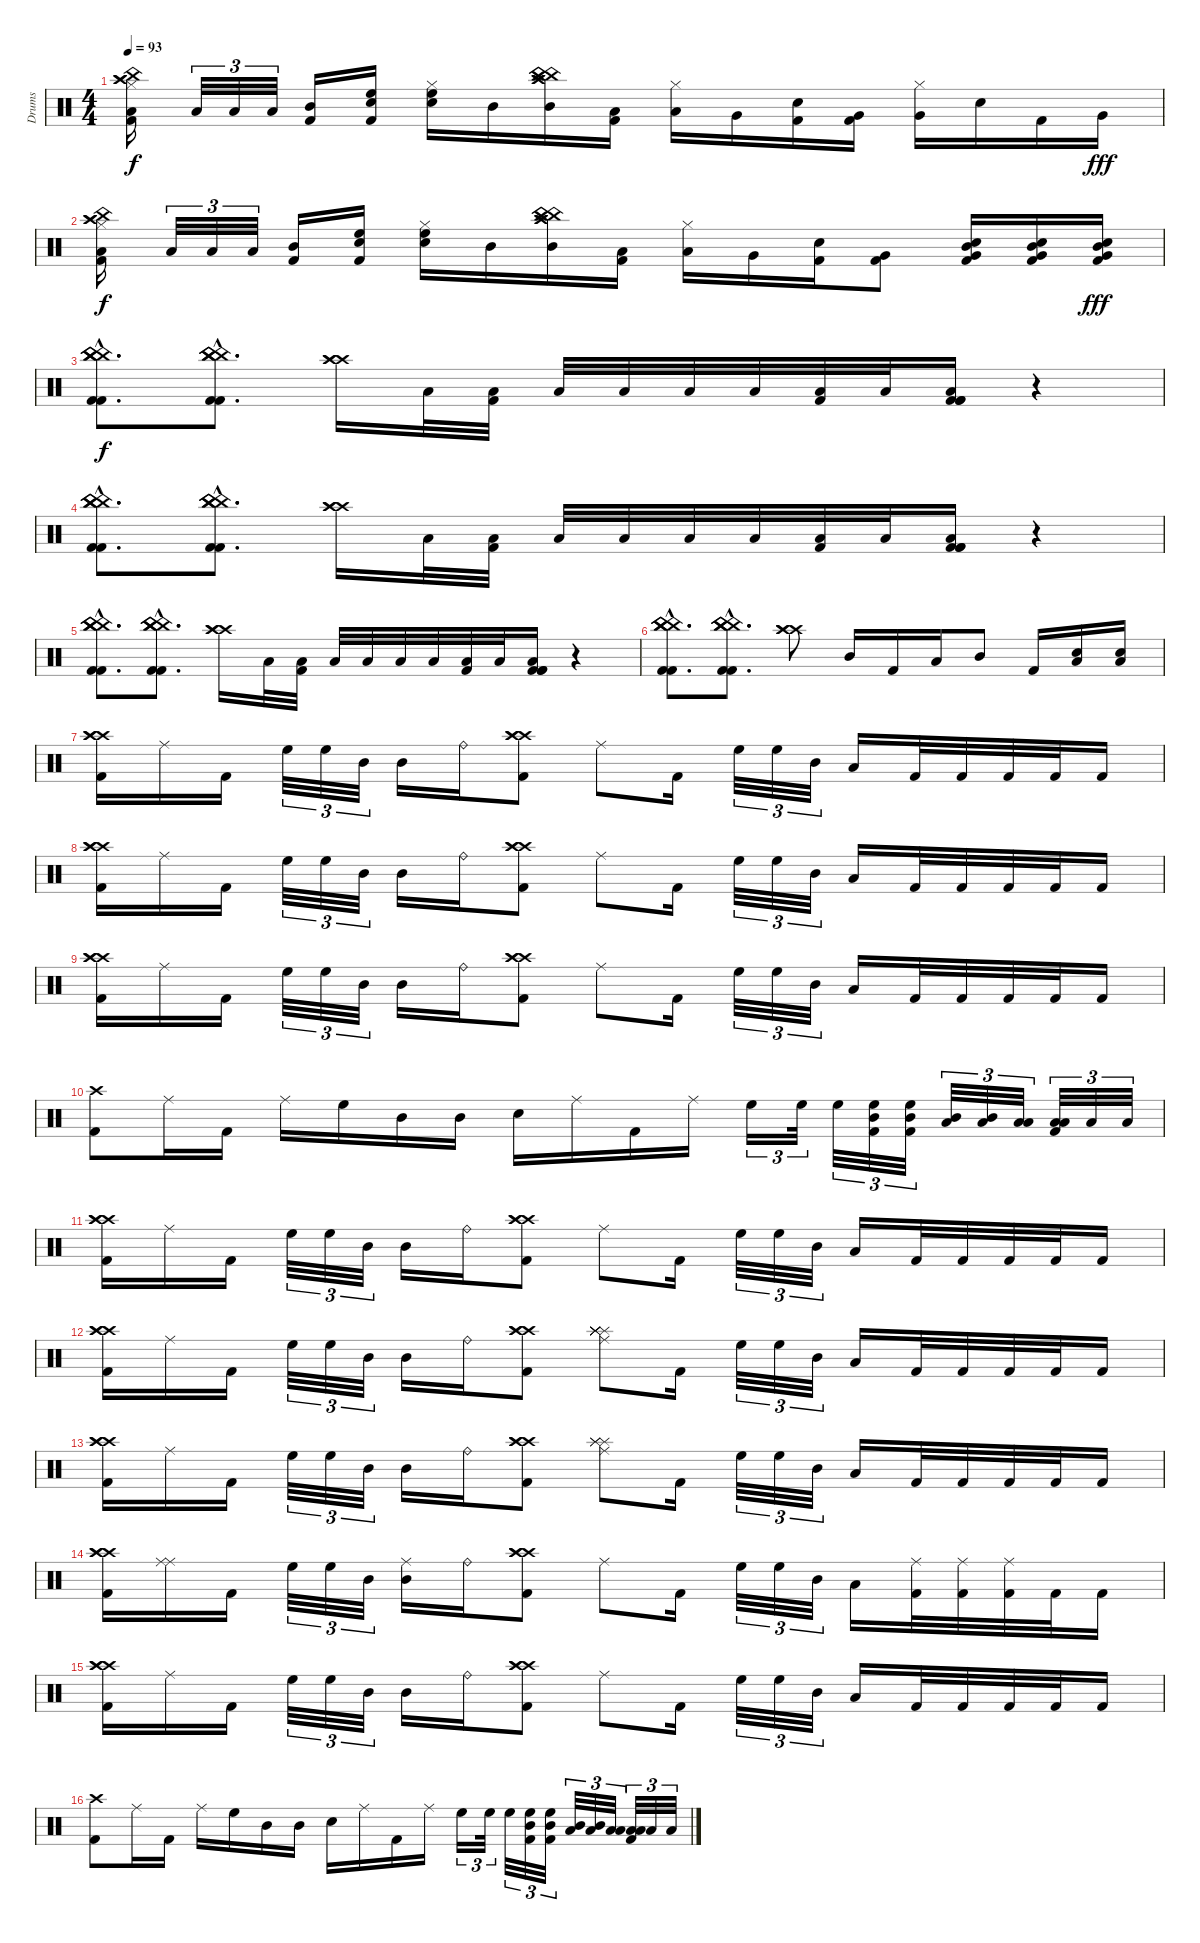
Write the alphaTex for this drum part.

\track ("Drums" "Drums") {instrument percussion}
\staff {score}
\articulation defaults
\ts (4 4)
\tempo 93
\clef neutral
\ks c
("Hi-Hat (closed)" "China (hit)" "Low Floor Tom (hit)" "Crash high (hit)" "Crash high (hit)" "Kick (hit) 2").16{dy f} "Low Floor Tom (hit)".32{tu (3 2)} "Low Floor Tom (hit)".32{tu (3 2)} "Low Floor Tom (hit)".32{tu (3 2)} ("Mid Tom (hit)" "Kick (hit) 2").16 ("High Floor Tom (hit)" "Snare (hit) 2" "Kick (hit) 2").16 ("High Floor Tom (hit)" "Hi-Hat (closed)" "Snare (hit) 2").16 "Mid Tom (hit)".16 ("China (hit)" "Mid Tom (hit)" "China (hit)" "China (hit)" "Crash high (hit)" "Crash high (hit)").16 ("Low Tom (hit)" "Kick (hit) 2").16 ("Hi-Hat (closed)" "Low Floor Tom (hit)").16 "Very Low Tom (hit)".16 ("Snare (hit) 2" "Kick (hit) 2").16 ("Very Low Tom (hit)" "Kick (hit) 2").16 ("Hi-Hat (closed)" "Very Low Tom (hit)").16 "Snare (hit) 2".16 "Kick (hit) 2".16 "Very Low Tom (hit)".16{dy fff} |
("Hi-Hat (closed)" "China (hit)" "Low Floor Tom (hit)" "Crash high (hit)" "Crash high (hit)" "Kick (hit) 2").16{dy f} "Low Floor Tom (hit)".32{tu (3 2)} "Low Floor Tom (hit)".32{tu (3 2)} "Low Floor Tom (hit)".32{tu (3 2)} ("Mid Tom (hit)" "Kick (hit) 2").16 ("High Floor Tom (hit)" "Snare (hit) 2" "Kick (hit) 2").16 ("High Floor Tom (hit)" "Hi-Hat (closed)" "Snare (hit) 2").16 "Mid Tom (hit)".16 ("China (hit)" "Mid Tom (hit)" "China (hit)" "China (hit)" "Crash high (hit)" "Crash high (hit)").16 ("Low Tom (hit)" "Kick (hit) 2").16 ("Hi-Hat (closed)" "Low Floor Tom (hit)").16 "Very Low Tom (hit)".16 ("Snare (hit) 2" "Kick (hit) 2").16 ("Very Low Tom (hit)" "Kick (hit) 2").8 ("Mid Tom (hit)" "Very Low Tom (hit)" "Snare (hit) 2" "Kick (hit) 2").16 ("Mid Tom (hit)" "Very Low Tom (hit)" "Snare (hit) 2" "Kick (hit) 2").16 ("Mid Tom (hit)" "Very Low Tom (hit)" "Snare (hit) 2" "Kick (hit) 2").16{dy fff} |
("China (hit)"{hac} "China (hit)"{hac} "China (hit)"{hac} "China (hit)"{hac} "Kick (hit) 2"{hac} "Kick (hit) 2"{hac}).8{d dy f} ("China (hit)"{hac} "China (hit)"{hac} "China (hit)"{hac} "China (hit)"{hac} "Kick (hit) 2"{hac} "Kick (hit) 2"{hac}).8{d} ("Crash high (hit)" "Crash high (hit)" "Crash high (hit)").16 "Low Floor Tom (hit)".32{volume 0} ("Low Floor Tom (hit)" "Kick (hit) 2").32{volume 16} "Low Floor Tom (hit)".32 "Low Floor Tom (hit)".32 "Low Floor Tom (hit)".32 "Low Floor Tom (hit)".32 ("Low Floor Tom (hit)" "Kick (hit) 2").32 "Low Floor Tom (hit)".32 ("Kick (hit) 2" "Kick (hit) 2" "Low Floor Tom (hit)" "Kick (hit) 2").16 r.4 |
("China (hit)"{hac} "China (hit)"{hac} "China (hit)"{hac} "China (hit)"{hac} "Kick (hit) 2"{hac} "Kick (hit) 2"{hac}).8{d} ("China (hit)"{hac} "China (hit)"{hac} "China (hit)"{hac} "China (hit)"{hac} "Kick (hit) 2"{hac} "Kick (hit) 2"{hac}).8{d} ("Crash high (hit)" "Crash high (hit)" "Crash high (hit)").16 "Low Floor Tom (hit)".32{volume 0} ("Low Floor Tom (hit)" "Kick (hit) 2").32{volume 16} "Low Floor Tom (hit)".32 "Low Floor Tom (hit)".32 "Low Floor Tom (hit)".32 "Low Floor Tom (hit)".32 ("Low Floor Tom (hit)" "Kick (hit) 2").32 "Low Floor Tom (hit)".32 ("Kick (hit) 2" "Kick (hit) 2" "Low Floor Tom (hit)" "Kick (hit) 2").16 r.4 |
("China (hit)"{hac} "China (hit)"{hac} "China (hit)"{hac} "China (hit)"{hac} "Kick (hit) 2"{hac} "Kick (hit) 2"{hac}).8{d} ("China (hit)"{hac} "China (hit)"{hac} "China (hit)"{hac} "China (hit)"{hac} "Kick (hit) 2"{hac} "Kick (hit) 2"{hac}).8{d} ("Crash high (hit)" "Crash high (hit)" "Crash high (hit)").16 "Low Floor Tom (hit)".32{volume 0} ("Low Floor Tom (hit)" "Kick (hit) 2").32{volume 16} "Low Floor Tom (hit)".32 "Low Floor Tom (hit)".32 "Low Floor Tom (hit)".32 "Low Floor Tom (hit)".32 ("Low Floor Tom (hit)" "Kick (hit) 2").32 "Low Floor Tom (hit)".32 ("Kick (hit) 2" "Kick (hit) 2" "Low Floor Tom (hit)" "Kick (hit) 2").16 r.4 |
("China (hit)"{hac} "China (hit)"{hac} "China (hit)"{hac} "China (hit)"{hac} "Kick (hit) 2"{hac} "Kick (hit) 2"{hac}).8{d} ("China (hit)"{hac} "China (hit)"{hac} "China (hit)"{hac} "China (hit)"{hac} "Kick (hit) 2"{hac} "Kick (hit) 2"{hac}).8{d} ("Crash high (hit)" "Crash high (hit)" "Crash high (hit)").8 "Mid Tom (hit)".16 "Kick (hit) 2".16 "Low Tom (hit)".16 "Mid Tom (hit)".8 "Kick (hit) 2".16 ("Low Floor Tom (hit)" "Snare (hit) 2").16 ("Low Floor Tom (hit)" "Snare (hit) 2").16 |
("Crash high (hit)" "Crash high (hit)" "Crash high (hit)" "Kick (hit) 2").16 "Ride (middle)".16 "Kick (hit) 2".16 "High Floor Tom (hit)".32{tu (3 2)} "High Floor Tom (hit)".32{tu (3 2)} "Mid Tom (hit)".32{tu (3 2)} "Mid Tom (hit)".16 "Ride (bell)".16 ("Crash high (hit)" "Kick (hit) 2" "Crash high (hit)" "Crash high (hit)").8 "Ride (middle)".8 "Kick (hit) 2".16 "High Floor Tom (hit)".32{tu (3 2)} "High Floor Tom (hit)".32{tu (3 2)} "Mid Tom (hit)".32{tu (3 2)} "Low Tom (hit)".16 "Kick (hit) 2".32 "Kick (hit) 2".32 "Kick (hit) 2".32 "Kick (hit) 2".32 "Kick (hit) 2".16 |
("Crash high (hit)" "Crash high (hit)" "Crash high (hit)" "Kick (hit) 2").16 "Ride (middle)".16 "Kick (hit) 2".16 "High Floor Tom (hit)".32{tu (3 2)} "High Floor Tom (hit)".32{tu (3 2)} "Mid Tom (hit)".32{tu (3 2)} "Mid Tom (hit)".16 "Ride (bell)".16 ("Crash high (hit)" "Kick (hit) 2" "Crash high (hit)" "Crash high (hit)").8 "Ride (middle)".8 "Kick (hit) 2".16 "High Floor Tom (hit)".32{tu (3 2)} "High Floor Tom (hit)".32{tu (3 2)} "Mid Tom (hit)".32{tu (3 2)} "Low Tom (hit)".16 "Kick (hit) 2".32 "Kick (hit) 2".32 "Kick (hit) 2".32 "Kick (hit) 2".32 "Kick (hit) 2".16 |
("Crash high (hit)" "Crash high (hit)" "Crash high (hit)" "Kick (hit) 2").16 "Ride (middle)".16 "Kick (hit) 2".16 "High Floor Tom (hit)".32{tu (3 2)} "High Floor Tom (hit)".32{tu (3 2)} "Mid Tom (hit)".32{tu (3 2)} "Mid Tom (hit)".16 "Ride (bell)".16 ("Crash high (hit)" "Kick (hit) 2" "Crash high (hit)" "Crash high (hit)").8 "Ride (middle)".8 "Kick (hit) 2".16 "High Floor Tom (hit)".32{tu (3 2)} "High Floor Tom (hit)".32{tu (3 2)} "Mid Tom (hit)".32{tu (3 2)} "Low Tom (hit)".16 "Kick (hit) 2".32 "Kick (hit) 2".32 "Kick (hit) 2".32 "Kick (hit) 2".32 "Kick (hit) 2".16 |
("Crash high (hit)" "Kick (hit) 2").8 "Ride (middle)".16 "Kick (hit) 2".16 "Ride (middle)".16 "High Floor Tom (hit)".16 "Mid Tom (hit)".16 "Mid Tom (hit)".16 "Snare (hit) 2".16 "Ride (middle)".16 "Kick (hit) 2".16 "Ride (middle)".16 "High Floor Tom (hit)".16{tu (3 2)} "High Floor Tom (hit)".32{tu (3 2)} "High Floor Tom (hit)".32{tu (3 2)} ("Kick (hit) 2" "High Floor Tom (hit)" "Mid Tom (hit)").32{tu (3 2)} ("Kick (hit) 2" "High Floor Tom (hit)" "Mid Tom (hit)").32{tu (3 2)} ("Mid Tom (hit)" "Low Tom (hit)").32{tu (3 2)} ("Mid Tom (hit)" "Low Tom (hit)").32{tu (3 2)} ("Low Tom (hit)" "Low Floor Tom (hit)").32{tu (3 2)} ("Kick (hit) 2" "Low Tom (hit)" "Low Floor Tom (hit)").32{tu (3 2)} "Low Floor Tom (hit)".32{tu (3 2)} "Low Floor Tom (hit)".32{tu (3 2)} |
("Crash high (hit)" "Crash high (hit)" "Crash high (hit)" "Kick (hit) 2").16 "Ride (middle)".16 "Kick (hit) 2".16 "High Floor Tom (hit)".32{tu (3 2)} "High Floor Tom (hit)".32{tu (3 2)} "Mid Tom (hit)".32{tu (3 2)} "Mid Tom (hit)".16 "Ride (bell)".16 ("Crash high (hit)" "Kick (hit) 2" "Crash high (hit)" "Crash high (hit)").8 "Ride (middle)".8 "Kick (hit) 2".16 "High Floor Tom (hit)".32{tu (3 2)} "High Floor Tom (hit)".32{tu (3 2)} "Mid Tom (hit)".32{tu (3 2)} "Low Tom (hit)".16 "Kick (hit) 2".32 "Kick (hit) 2".32 "Kick (hit) 2".32 "Kick (hit) 2".32 "Kick (hit) 2".16 |
("Crash high (hit)" "Crash high (hit)" "Crash high (hit)" "Kick (hit) 2").16 "Ride (middle)".16 "Kick (hit) 2".16 "High Floor Tom (hit)".32{tu (3 2)} "High Floor Tom (hit)".32{tu (3 2)} "Mid Tom (hit)".32{tu (3 2)} "Mid Tom (hit)".16 "Ride (bell)".16 ("Crash high (hit)" "Kick (hit) 2" "Crash high (hit)" "Crash high (hit)").8 ("Ride (middle)" "Splash (hit)" "Splash (hit)" "Splash (hit)" "Splash (hit)" "Splash (hit)").8 "Kick (hit) 2".16 "High Floor Tom (hit)".32{tu (3 2)} "High Floor Tom (hit)".32{tu (3 2)} "Mid Tom (hit)".32{tu (3 2)} "Low Tom (hit)".16 "Kick (hit) 2".32 "Kick (hit) 2".32 "Kick (hit) 2".32 "Kick (hit) 2".32 "Kick (hit) 2".16 |
("Crash high (hit)" "Crash high (hit)" "Crash high (hit)" "Kick (hit) 2").16 "Ride (middle)".16 "Kick (hit) 2".16 "High Floor Tom (hit)".32{tu (3 2)} "High Floor Tom (hit)".32{tu (3 2)} "Mid Tom (hit)".32{tu (3 2)} "Mid Tom (hit)".16 "Ride (bell)".16 ("Crash high (hit)" "Kick (hit) 2" "Crash high (hit)" "Crash high (hit)").8 ("Ride (middle)" "Splash (hit)" "Splash (hit)" "Splash (hit)").8 "Kick (hit) 2".16 "High Floor Tom (hit)".32{tu (3 2)} "High Floor Tom (hit)".32{tu (3 2)} "Mid Tom (hit)".32{tu (3 2)} "Low Tom (hit)".16 "Kick (hit) 2".32 "Kick (hit) 2".32 "Kick (hit) 2".32 "Kick (hit) 2".32 "Kick (hit) 2".16 |
("Crash high (hit)" "Crash high (hit)" "Crash high (hit)" "Kick (hit) 2").16 ("Ride (middle)" "Ride (middle)").16 "Kick (hit) 2".16 "High Floor Tom (hit)".32{tu (3 2)} "High Floor Tom (hit)".32{tu (3 2)} "Mid Tom (hit)".32{tu (3 2)} ("Mid Tom (hit)" "Ride (middle)").16 "Ride (bell)".16 ("Crash high (hit)" "Kick (hit) 2" "Crash high (hit)" "Crash high (hit)").8 "Ride (middle)".8 "Kick (hit) 2".16 "High Floor Tom (hit)".32{tu (3 2)} "High Floor Tom (hit)".32{tu (3 2)} "Mid Tom (hit)".32{tu (3 2)} "Low Tom (hit)".16 ("Ride (middle)" "Kick (hit) 2").32 ("Ride (middle)" "Kick (hit) 2").32 ("Ride (middle)" "Kick (hit) 2").32 "Kick (hit) 2".32 "Kick (hit) 2".16 |
("Crash high (hit)" "Crash high (hit)" "Crash high (hit)" "Kick (hit) 2").16 "Ride (middle)".16 "Kick (hit) 2".16 "High Floor Tom (hit)".32{tu (3 2)} "High Floor Tom (hit)".32{tu (3 2)} "Mid Tom (hit)".32{tu (3 2)} "Mid Tom (hit)".16 "Ride (bell)".16 ("Crash high (hit)" "Kick (hit) 2" "Crash high (hit)" "Crash high (hit)").8 "Ride (middle)".8 "Kick (hit) 2".16 "High Floor Tom (hit)".32{tu (3 2)} "High Floor Tom (hit)".32{tu (3 2)} "Mid Tom (hit)".32{tu (3 2)} "Low Tom (hit)".16 "Kick (hit) 2".32 "Kick (hit) 2".32 "Kick (hit) 2".32 "Kick (hit) 2".32 "Kick (hit) 2".16 |
("Crash high (hit)" "Kick (hit) 2").8 "Ride (middle)".16 "Kick (hit) 2".16 "Ride (middle)".16 "High Floor Tom (hit)".16 "Mid Tom (hit)".16 "Mid Tom (hit)".16 "Snare (hit) 2".16 "Ride (middle)".16 "Kick (hit) 2".16 "Ride (middle)".16 "High Floor Tom (hit)".16{tu (3 2)} "High Floor Tom (hit)".32{tu (3 2)} "High Floor Tom (hit)".32{tu (3 2)} ("Kick (hit) 2" "High Floor Tom (hit)" "Mid Tom (hit)").32{tu (3 2)} ("Kick (hit) 2" "High Floor Tom (hit)" "Mid Tom (hit)").32{tu (3 2)} ("Mid Tom (hit)" "Low Tom (hit)").32{tu (3 2)} ("Mid Tom (hit)" "Low Tom (hit)").32{tu (3 2)} ("Low Tom (hit)" "Low Floor Tom (hit)").32{tu (3 2)} ("Kick (hit) 2" "Low Tom (hit)" "Low Floor Tom (hit)").32{tu (3 2)} "Low Floor Tom (hit)".32{tu (3 2)} "Low Floor Tom (hit)".32{tu (3 2)}
